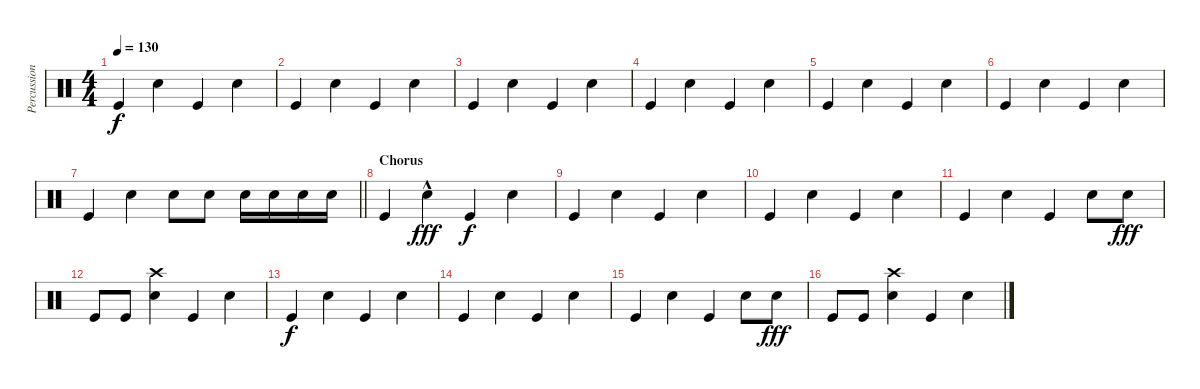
\track ("Percussion" "Percussion") {instrument percussion}
\staff {score}
\articulation defaults
\ts (4 4)
\tempo 130
\clef neutral
\ks c "Kick (hit)".4{dy f} "Snare (hit) 2".4 "Kick (hit)".4 "Snare (hit) 2".4
|
"Kick (hit)".4 "Snare (hit) 2".4 "Kick (hit)".4 "Snare (hit) 2".4 |
"Kick (hit)".4 "Snare (hit) 2".4 "Kick (hit)".4 "Snare (hit) 2".4 |
"Kick (hit)".4 "Snare (hit) 2".4 "Kick (hit)".4 "Snare (hit) 2".4 |
"Kick (hit)".4 "Snare (hit) 2".4 "Kick (hit)".4 "Snare (hit) 2".4 |
"Kick (hit)".4 "Snare (hit) 2".4 "Kick (hit)".4 "Snare (hit) 2".4 |
\barLineRight lightlight "Kick (hit)".4 "Snare (hit) 2".4 "Snare (hit) 2".8 "Snare (hit) 2".8 "Snare (hit) 2".16 "Snare (hit) 2".16 "Snare (hit) 2".16 "Snare (hit) 2".16
|
\section ("" "Chorus")
"Kick (hit)".4 "Snare (hit) 2"{hac}.4{dy fff} "Kick (hit)".4{dy f} "Snare (hit) 2".4 |
"Kick (hit)".4 "Snare (hit) 2".4 "Kick (hit)".4 "Snare (hit) 2".4 |
"Kick (hit)".4 "Snare (hit) 2".4 "Kick (hit)".4 "Snare (hit) 2".4 |
"Kick (hit)".4 "Snare (hit) 2".4 "Kick (hit)".4 "Snare (hit) 2".8 "Snare (hit) 2".8{dy fff} |
"Kick (hit)".8 "Kick (hit)".8 ("Crash high (hit)" "Snare (hit) 2").4 "Kick (hit)".4 "Snare (hit) 2".4 |
"Kick (hit)".4{dy f} "Snare (hit) 2".4 "Kick (hit)".4 "Snare (hit) 2".4 |
"Kick (hit)".4 "Snare (hit) 2".4 "Kick (hit)".4 "Snare (hit) 2".4 |
"Kick (hit)".4 "Snare (hit) 2".4 "Kick (hit)".4 "Snare (hit) 2".8 "Snare (hit) 2".8{dy fff} |
"Kick (hit)".8 "Kick (hit)".8 ("Crash high (hit)" "Snare (hit) 2").4 "Kick (hit)".4 "Snare (hit) 2".4
